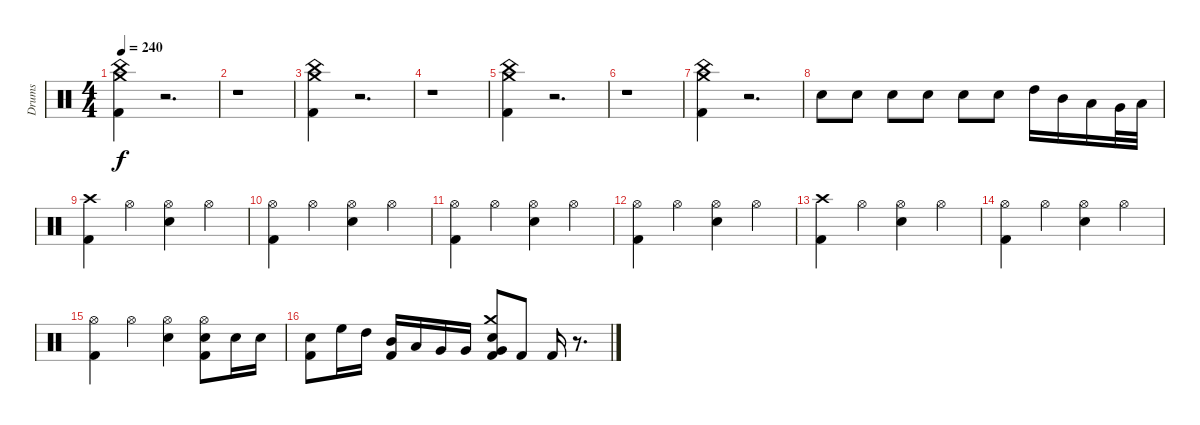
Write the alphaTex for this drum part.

\track ("Drums" "Drums") {instrument percussion}
\staff {score}
\articulation defaults
\ts (4 4)
\tempo 240
\clef neutral
\ks c
("Kick (hit) 2" "China (hit)" "Crash medium (hit)").4{dy f} r.2{d} |
r.1 |
("Kick (hit) 2" "China (hit)" "Crash medium (hit)").4 r.2{d} |
r.1 |
("Kick (hit) 2" "China (hit)" "Crash medium (hit)").4 r.2{d} |
r.1 |
("Kick (hit) 2" "China (hit)" "Crash medium (hit)").4 r.2{d} |
"Electric Snare (hit)".8 "Electric Snare (hit)".8 "Electric Snare (hit)".8 "Electric Snare (hit)".8 "Electric Snare (hit)".8 "Electric Snare (hit)".8 "High Tom (hit)".16 "Mid Tom (hit)".16 "Low Tom (hit)".16 "Very Low Tom (hit)".32 "Low Floor Tom (hit)".32 |
("Kick (hit) 2" "Crash high (hit)").4 "Hi-Hat (open)".4 ("Electric Snare (hit)" "Hi-Hat (open)").4 "Hi-Hat (open)".4 |
("Kick (hit) 2" "Hi-Hat (open)").4 "Hi-Hat (open)".4 ("Electric Snare (hit)" "Hi-Hat (open)").4 "Hi-Hat (open)".4 |
("Kick (hit) 2" "Hi-Hat (open)").4 "Hi-Hat (open)".4 ("Electric Snare (hit)" "Hi-Hat (open)").4 "Hi-Hat (open)".4 |
("Kick (hit) 2" "Hi-Hat (open)").4 "Hi-Hat (open)".4 ("Electric Snare (hit)" "Hi-Hat (open)").4 "Hi-Hat (open)".4 |
("Kick (hit) 2" "Crash high (hit)").4 "Hi-Hat (open)".4 ("Electric Snare (hit)" "Hi-Hat (open)").4 "Hi-Hat (open)".4 |
("Kick (hit) 2" "Hi-Hat (open)").4 "Hi-Hat (open)".4 ("Electric Snare (hit)" "Hi-Hat (open)").4 "Hi-Hat (open)".4 |
("Kick (hit) 2" "Hi-Hat (open)").4 "Hi-Hat (open)".4 ("Electric Snare (hit)" "Hi-Hat (open)").4 ("Kick (hit) 2" "Electric Snare (hit)" "Hi-Hat (open)").8 "Electric Snare (hit)".16 "Electric Snare (hit)".16 |
("Kick (hit) 2" "Electric Snare (hit)").8 "High Floor Tom (hit)".16 "High Tom (hit)".16 ("Kick (hit) 2" "Mid Tom (hit)").16 "Low Tom (hit)".16 "Very Low Tom (hit)".16 "Very Low Tom (hit)".16 ("Kick (hit) 2" "Electric Snare (hit)" "Very Low Tom (hit)" "Crash medium (hit)").8 "Kick (hit) 2".8 "Kick (hit) 2".16 r.8{d}
